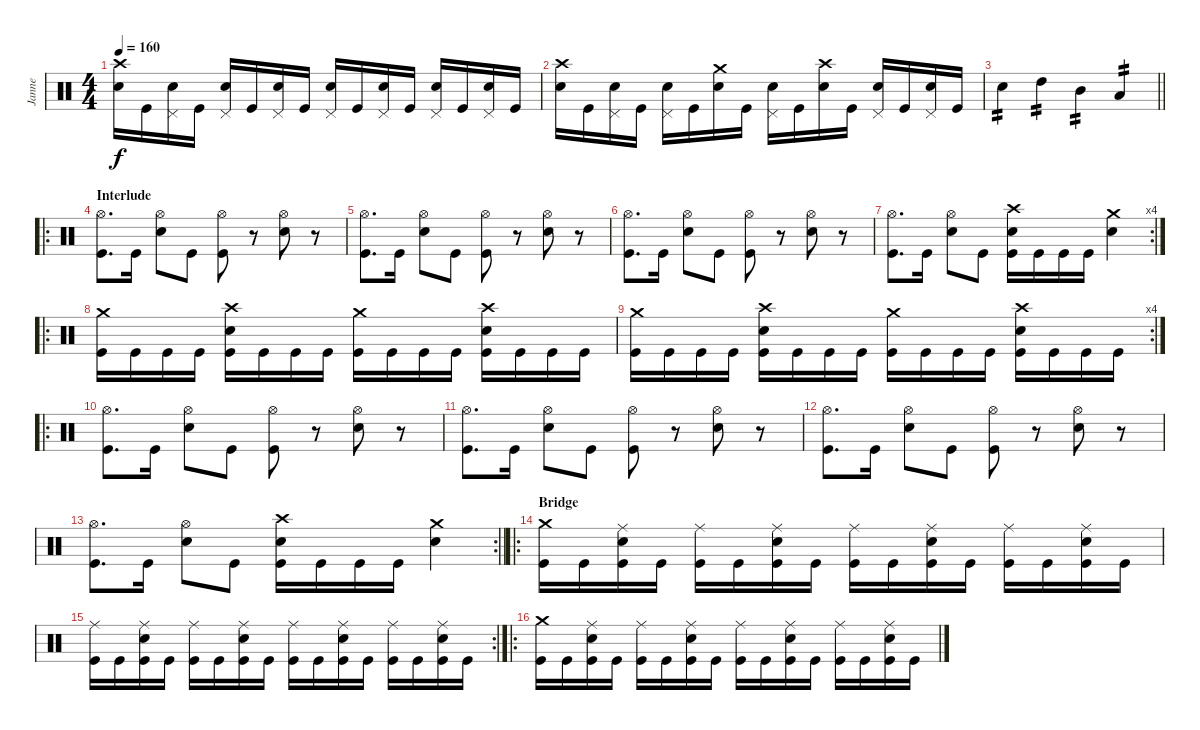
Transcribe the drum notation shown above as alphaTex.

\track ("Janne" "Janne") {instrument percussion}
\staff {score}
\articulation defaults
\ts (4 4)
\tempo 160
\clef neutral
\ks c
("Crash high (hit)" "Snare (hit) 2").16{dy f} "Kick (hit)".16 ("Pedal Hi-Hat (hit)" "Snare (hit) 2").16 "Kick (hit)".16 ("Pedal Hi-Hat (hit)" "Snare (hit) 2").16 "Kick (hit)".16 ("Pedal Hi-Hat (hit)" "Snare (hit) 2").16 "Kick (hit)".16 ("Pedal Hi-Hat (hit)" "Snare (hit) 2").16 "Kick (hit)".16 ("Pedal Hi-Hat (hit)" "Snare (hit) 2").16 "Kick (hit)".16 ("Pedal Hi-Hat (hit)" "Snare (hit) 2").16 "Kick (hit)".16 ("Pedal Hi-Hat (hit)" "Snare (hit) 2").16 "Kick (hit)".16 |
("Crash high (hit)" "Snare (hit) 2").16 "Kick (hit)".16 ("Pedal Hi-Hat (hit)" "Snare (hit) 2").16 "Kick (hit)".16 ("Pedal Hi-Hat (hit)" "Snare (hit) 2").16 "Kick (hit)".16 ("Crash medium (hit)" "Snare (hit) 2").16 "Kick (hit)".16 ("Pedal Hi-Hat (hit)" "Snare (hit) 2").16 "Kick (hit)".16 ("Crash high (hit)" "Snare (hit) 2").16 "Kick (hit)".16 ("Pedal Hi-Hat (hit)" "Snare (hit) 2").16 "Kick (hit)".16 ("Pedal Hi-Hat (hit)" "Snare (hit) 2").16 "Kick (hit)".16 |
\barLineRight lightlight "Snare (hit) 2".4{tp 2} "High Tom (hit)".4{tp 2} "Mid Tom (hit)".4{tp 2} "Low Tom (hit)".4{tp 2}
|
\ro
\section ("" "Interlude")
("Hi-Hat (open)" "Kick (hit)").8{d} "Kick (hit)".16 ("Hi-Hat (open)" "Snare (hit) 2").8 "Kick (hit)".8 ("Hi-Hat (open)" "Kick (hit)").8 r.8 ("Hi-Hat (open)" "Snare (hit) 2").8 r.8 |
("Hi-Hat (open)" "Kick (hit)").8{d} "Kick (hit)".16 ("Hi-Hat (open)" "Snare (hit) 2").8 "Kick (hit)".8 ("Hi-Hat (open)" "Kick (hit)").8 r.8 ("Hi-Hat (open)" "Snare (hit) 2").8 r.8 |
("Hi-Hat (open)" "Kick (hit)").8{d} "Kick (hit)".16 ("Hi-Hat (open)" "Snare (hit) 2").8 "Kick (hit)".8 ("Hi-Hat (open)" "Kick (hit)").8 r.8 ("Hi-Hat (open)" "Snare (hit) 2").8 r.8 |
\rc 4
("Hi-Hat (open)" "Kick (hit)").8{d} "Kick (hit)".16 ("Hi-Hat (open)" "Snare (hit) 2").8 "Kick (hit)".8 ("Crash high (hit)" "Snare (hit) 2" "Kick (hit)").16 "Kick (hit)".16 "Kick (hit)".16 "Kick (hit)".16 ("Crash medium (hit)" "Snare (hit) 2").4 |
\ro
("Crash medium (hit)" "Kick (hit)").16 "Kick (hit)".16 "Kick (hit)".16 "Kick (hit)".16 ("Crash high (hit)" "Snare (hit) 2" "Kick (hit)").16 "Kick (hit)".16 "Kick (hit)".16 "Kick (hit)".16 ("Crash medium (hit)" "Kick (hit)").16 "Kick (hit)".16 "Kick (hit)".16 "Kick (hit)".16 ("Crash high (hit)" "Snare (hit) 2" "Kick (hit)").16 "Kick (hit)".16 "Kick (hit)".16 "Kick (hit)".16 |
\rc 4
("Crash medium (hit)" "Kick (hit)").16 "Kick (hit)".16 "Kick (hit)".16 "Kick (hit)".16 ("Crash high (hit)" "Snare (hit) 2" "Kick (hit)").16 "Kick (hit)".16 "Kick (hit)".16 "Kick (hit)".16 ("Crash medium (hit)" "Kick (hit)").16 "Kick (hit)".16 "Kick (hit)".16 "Kick (hit)".16 ("Crash high (hit)" "Snare (hit) 2" "Kick (hit)").16 "Kick (hit)".16 "Kick (hit)".16 "Kick (hit)".16 |
\ro
("Hi-Hat (open)" "Kick (hit)").8{d} "Kick (hit)".16 ("Hi-Hat (open)" "Snare (hit) 2").8 "Kick (hit)".8 ("Hi-Hat (open)" "Kick (hit)").8 r.8 ("Hi-Hat (open)" "Snare (hit) 2").8 r.8 |
("Hi-Hat (open)" "Kick (hit)").8{d} "Kick (hit)".16 ("Hi-Hat (open)" "Snare (hit) 2").8 "Kick (hit)".8 ("Hi-Hat (open)" "Kick (hit)").8 r.8 ("Hi-Hat (open)" "Snare (hit) 2").8 r.8 |
("Hi-Hat (open)" "Kick (hit)").8{d} "Kick (hit)".16 ("Hi-Hat (open)" "Snare (hit) 2").8 "Kick (hit)".8 ("Hi-Hat (open)" "Kick (hit)").8 r.8 ("Hi-Hat (open)" "Snare (hit) 2").8 r.8 |
\rc 2
\barLineRight lightlight
("Hi-Hat (open)" "Kick (hit)").8{d} "Kick (hit)".16 ("Hi-Hat (open)" "Snare (hit) 2").8 "Kick (hit)".8 ("Crash high (hit)" "Snare (hit) 2" "Kick (hit)").16 "Kick (hit)".16 "Kick (hit)".16 "Kick (hit)".16 ("Crash medium (hit)" "Snare (hit) 2").4 |
\ro
\section ("" "Bridge")
("Crash medium (hit)" "Kick (hit)").16 "Kick (hit)".16 ("Ride (middle)" "Snare (hit) 2" "Kick (hit)").16 "Kick (hit)".16 ("Ride (middle)" "Kick (hit)").16 "Kick (hit)".16 ("Ride (middle)" "Snare (hit) 2" "Kick (hit)").16 "Kick (hit)".16 ("Ride (middle)" "Kick (hit)").16 "Kick (hit)".16 ("Ride (middle)" "Snare (hit) 2" "Kick (hit)").16 "Kick (hit)".16 ("Ride (middle)" "Kick (hit)").16 "Kick (hit)".16 ("Ride (middle)" "Snare (hit) 2" "Kick (hit)").16 "Kick (hit)".16 |
\rc 2
("Ride (middle)" "Kick (hit)").16 "Kick (hit)".16 ("Ride (middle)" "Snare (hit) 2" "Kick (hit)").16 "Kick (hit)".16 ("Ride (middle)" "Kick (hit)").16 "Kick (hit)".16 ("Ride (middle)" "Snare (hit) 2" "Kick (hit)").16 "Kick (hit)".16 ("Ride (middle)" "Kick (hit)").16 "Kick (hit)".16 ("Ride (middle)" "Snare (hit) 2" "Kick (hit)").16 "Kick (hit)".16 ("Ride (middle)" "Kick (hit)").16 "Kick (hit)".16 ("Ride (middle)" "Snare (hit) 2" "Kick (hit)").16 "Kick (hit)".16 |
\ro
("Crash medium (hit)" "Kick (hit)").16 "Kick (hit)".16 ("Ride (middle)" "Snare (hit) 2" "Kick (hit)").16 "Kick (hit)".16 ("Ride (middle)" "Kick (hit)").16 "Kick (hit)".16 ("Ride (middle)" "Snare (hit) 2" "Kick (hit)").16 "Kick (hit)".16 ("Ride (middle)" "Kick (hit)").16 "Kick (hit)".16 ("Ride (middle)" "Snare (hit) 2" "Kick (hit)").16 "Kick (hit)".16 ("Ride (middle)" "Kick (hit)").16 "Kick (hit)".16 ("Ride (middle)" "Snare (hit) 2" "Kick (hit)").16 "Kick (hit)".16
